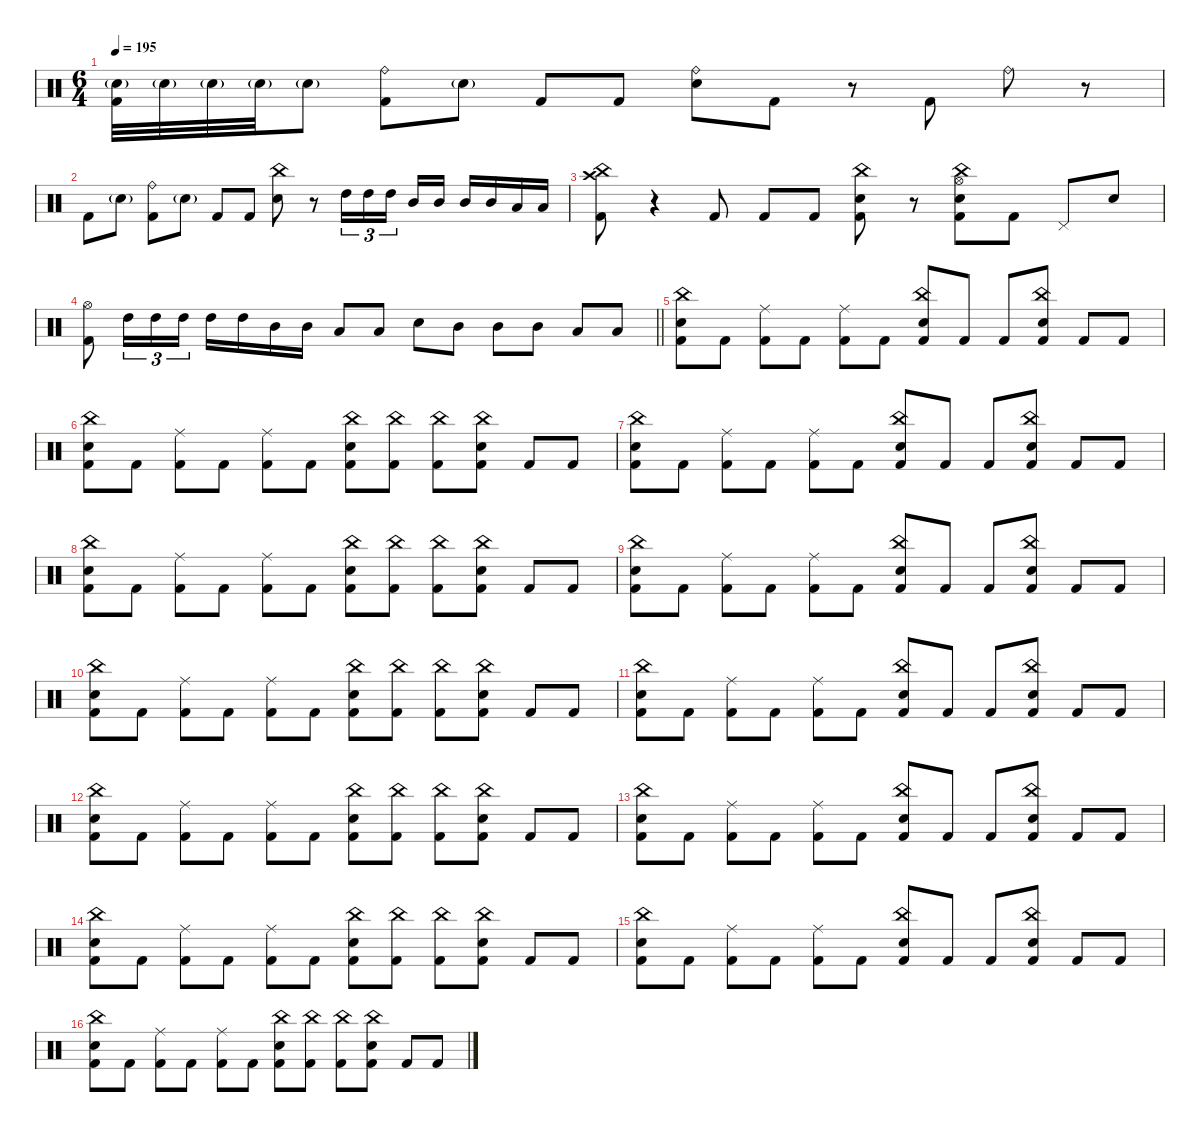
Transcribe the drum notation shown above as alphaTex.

\defaultSystemsLayout 4
\hideDynamics
\bracketExtendMode nobrackets
\singleTrackTrackNamePolicy hidden
\multiTrackTrackNamePolicy hidden
\firstSystemTrackNameMode fullname
\firstSystemTrackNameOrientation horizontal
\otherSystemsTrackNameOrientation horizontal
\track ("Drums" "drm.") {instrument percussion}
\staff {score}
\articulation defaults
\ts (6 4)
\tempo 195
\clef neutral
\ks c
("Snare (hit) 2"{g} "Kick (hit) 2").32{dy mf beam Down} "Snare (hit) 2"{g}.32{beam Down} "Snare (hit) 2"{g}.32{beam Down} "Snare (hit) 2"{g}.32{beam Down} "Snare (hit) 2"{g}.8{beam Down} ("Ride (bell)" "Kick (hit) 2").8{beam Down} "Snare (hit) 2"{g}.8{beam Up} "Kick (hit) 2".8{beam Up} "Kick (hit) 2".8{beam Up} ("Ride (bell)" "Snare (hit) 2").8{beam Down} "Kick (hit) 2".8{beam Down} r.8{beam Down} "Kick (hit) 2".8{beam Down} "Ride (bell)".8{beam Down} r.8{beam Down} |
"Kick (hit) 2".8{beam Down} "Snare (hit) 2"{g}.8{beam Down} ("Ride (bell)" "Kick (hit) 2").8{beam Down} "Snare (hit) 2"{g}.8{beam Up} "Kick (hit) 2".8{beam Up} "Kick (hit) 2".8{beam Up} ("China (hit)" "Snare (hit) 2").8{beam Down} r.8{beam Down} "High Tom (hit)".16{tu (3 2) dy ff beam Down} "High Tom (hit)".16{tu (3 2) beam Down} "High Tom (hit)".16{tu (3 2) beam Down} "Mid Tom (hit)".16{beam Up} "Mid Tom (hit)".16{beam Up} "Mid Tom (hit)".16{beam Up} "Mid Tom (hit)".16{beam Up} "Low Tom (hit)".16{beam Up} "Low Tom (hit)".16{beam Up} |
("China (hit)" "Crash high (hit)" "Kick (hit) 2").8{beam Down} r.4{beam Down} "Kick (hit) 2".8{beam Up} "Kick (hit) 2".8{beam Up} "Kick (hit) 2".8{beam Up} ("China (hit)" "Snare (hit) 2" "Kick (hit) 2").8{beam Down} r.8{beam Down} ("China (hit)" "Hi-Hat (open)" "Snare (hit) 2" "Kick (hit) 2").8{beam Down} "Kick (hit) 2".8{beam Up} "Pedal Hi-Hat (hit)".8{beam Up} "Snare (hit) 2".8{beam Up} |
\barLineRight lightlight
("Hi-Hat (open)" "Kick (hit) 2").8{beam Down} "High Tom (hit)".16{tu (3 2) beam Down} "High Tom (hit)".16{tu (3 2) beam Down} "High Tom (hit)".16{tu (3 2) beam Down} "High Tom (hit)".16{beam Down} "High Tom (hit)".16{beam Down} "Mid Tom (hit)".16{beam Up} "Mid Tom (hit)".16{beam Up} "Low Tom (hit)".8{beam Up} "Low Tom (hit)".8{beam Up} "Snare (hit) 2".8{beam Down} "Mid Tom (hit)".8{beam Down} "Mid Tom (hit)".8{beam Down} "Mid Tom (hit)".8{beam Up} "Low Tom (hit)".8{beam Up} "Low Tom (hit)".8{beam Up} |
("China (hit)" "Snare (hit) 2" "Kick (hit) 2").8{dy f beam Down} "Kick (hit) 2".8{beam Down} ("Ride (middle)" "Kick (hit) 2").8{beam Down} "Kick (hit) 2".8{beam Down} ("Ride (middle)" "Kick (hit) 2").8{beam Down} "Kick (hit) 2".8{beam Down} ("China (hit)" "Snare (hit) 2" "Kick (hit) 2").8{beam Up} "Kick (hit) 2".8{beam Up} "Kick (hit) 2".8{beam Up} ("China (hit)" "Snare (hit) 2" "Kick (hit) 2").8{beam Up} "Kick (hit) 2".8{beam Up} "Kick (hit) 2".8{beam Up} |
("China (hit)" "Snare (hit) 2" "Kick (hit) 2").8{beam Down} "Kick (hit) 2".8{beam Down} ("Ride (middle)" "Kick (hit) 2").8{beam Down} "Kick (hit) 2".8{beam Down} ("Ride (middle)" "Kick (hit) 2").8{beam Down} "Kick (hit) 2".8{beam Down} ("China (hit)" "Snare (hit) 2" "Kick (hit) 2").8{beam Down} ("China (hit)" "Kick (hit) 2").8{beam Down} ("China (hit)" "Kick (hit) 2").8{beam Down} ("China (hit)" "Snare (hit) 2" "Kick (hit) 2").8{beam Up} "Kick (hit) 2".8{beam Up} "Kick (hit) 2".8{beam Up} |
("China (hit)" "Snare (hit) 2" "Kick (hit) 2").8{beam Down} "Kick (hit) 2".8{beam Down} ("Ride (middle)" "Kick (hit) 2").8{beam Down} "Kick (hit) 2".8{beam Down} ("Ride (middle)" "Kick (hit) 2").8{beam Down} "Kick (hit) 2".8{beam Down} ("China (hit)" "Snare (hit) 2" "Kick (hit) 2").8{beam Up} "Kick (hit) 2".8{beam Up} "Kick (hit) 2".8{beam Up} ("China (hit)" "Snare (hit) 2" "Kick (hit) 2").8{beam Up} "Kick (hit) 2".8{beam Up} "Kick (hit) 2".8{beam Up} |
("China (hit)" "Snare (hit) 2" "Kick (hit) 2").8{beam Down} "Kick (hit) 2".8{beam Down} ("Ride (middle)" "Kick (hit) 2").8{beam Down} "Kick (hit) 2".8{beam Down} ("Ride (middle)" "Kick (hit) 2").8{beam Down} "Kick (hit) 2".8{beam Down} ("China (hit)" "Snare (hit) 2" "Kick (hit) 2").8{beam Down} ("China (hit)" "Kick (hit) 2").8{beam Down} ("China (hit)" "Kick (hit) 2").8{beam Down} ("China (hit)" "Snare (hit) 2" "Kick (hit) 2").8{beam Up} "Kick (hit) 2".8{beam Up} "Kick (hit) 2".8{beam Up} |
("China (hit)" "Snare (hit) 2" "Kick (hit) 2").8{beam Down} "Kick (hit) 2".8{beam Down} ("Ride (middle)" "Kick (hit) 2").8{beam Down} "Kick (hit) 2".8{beam Down} ("Ride (middle)" "Kick (hit) 2").8{beam Down} "Kick (hit) 2".8{beam Down} ("China (hit)" "Snare (hit) 2" "Kick (hit) 2").8{beam Up} "Kick (hit) 2".8{beam Up} "Kick (hit) 2".8{beam Up} ("China (hit)" "Snare (hit) 2" "Kick (hit) 2").8{beam Up} "Kick (hit) 2".8{beam Up} "Kick (hit) 2".8{beam Up} |
("China (hit)" "Snare (hit) 2" "Kick (hit) 2").8{beam Down} "Kick (hit) 2".8{beam Down} ("Ride (middle)" "Kick (hit) 2").8{beam Down} "Kick (hit) 2".8{beam Down} ("Ride (middle)" "Kick (hit) 2").8{beam Down} "Kick (hit) 2".8{beam Down} ("China (hit)" "Snare (hit) 2" "Kick (hit) 2").8{beam Down} ("China (hit)" "Kick (hit) 2").8{beam Down} ("China (hit)" "Kick (hit) 2").8{beam Down} ("China (hit)" "Snare (hit) 2" "Kick (hit) 2").8{beam Up} "Kick (hit) 2".8{beam Up} "Kick (hit) 2".8{beam Up} |
("China (hit)" "Snare (hit) 2" "Kick (hit) 2").8{beam Down} "Kick (hit) 2".8{beam Down} ("Ride (middle)" "Kick (hit) 2").8{beam Down} "Kick (hit) 2".8{beam Down} ("Ride (middle)" "Kick (hit) 2").8{beam Down} "Kick (hit) 2".8{beam Down} ("China (hit)" "Snare (hit) 2" "Kick (hit) 2").8{beam Up} "Kick (hit) 2".8{beam Up} "Kick (hit) 2".8{beam Up} ("China (hit)" "Snare (hit) 2" "Kick (hit) 2").8{beam Up} "Kick (hit) 2".8{beam Up} "Kick (hit) 2".8{beam Up} |
("China (hit)" "Snare (hit) 2" "Kick (hit) 2").8{beam Down} "Kick (hit) 2".8{beam Down} ("Ride (middle)" "Kick (hit) 2").8{beam Down} "Kick (hit) 2".8{beam Down} ("Ride (middle)" "Kick (hit) 2").8{beam Down} "Kick (hit) 2".8{beam Down} ("China (hit)" "Snare (hit) 2" "Kick (hit) 2").8{beam Down} ("China (hit)" "Kick (hit) 2").8{beam Down} ("China (hit)" "Kick (hit) 2").8{beam Down} ("China (hit)" "Snare (hit) 2" "Kick (hit) 2").8{beam Up} "Kick (hit) 2".8{beam Up} "Kick (hit) 2".8{beam Up} |
("China (hit)" "Snare (hit) 2" "Kick (hit) 2").8{beam Down} "Kick (hit) 2".8{beam Down} ("Ride (middle)" "Kick (hit) 2").8{beam Down} "Kick (hit) 2".8{beam Down} ("Ride (middle)" "Kick (hit) 2").8{beam Down} "Kick (hit) 2".8{beam Down} ("China (hit)" "Snare (hit) 2" "Kick (hit) 2").8{beam Up} "Kick (hit) 2".8{beam Up} "Kick (hit) 2".8{beam Up} ("China (hit)" "Snare (hit) 2" "Kick (hit) 2").8{beam Up} "Kick (hit) 2".8{beam Up} "Kick (hit) 2".8{beam Up} |
("China (hit)" "Snare (hit) 2" "Kick (hit) 2").8{beam Down} "Kick (hit) 2".8{beam Down} ("Ride (middle)" "Kick (hit) 2").8{beam Down} "Kick (hit) 2".8{beam Down} ("Ride (middle)" "Kick (hit) 2").8{beam Down} "Kick (hit) 2".8{beam Down} ("China (hit)" "Snare (hit) 2" "Kick (hit) 2").8{beam Down} ("China (hit)" "Kick (hit) 2").8{beam Down} ("China (hit)" "Kick (hit) 2").8{beam Down} ("China (hit)" "Snare (hit) 2" "Kick (hit) 2").8{beam Up} "Kick (hit) 2".8{beam Up} "Kick (hit) 2".8{beam Up} |
("China (hit)" "Snare (hit) 2" "Kick (hit) 2").8{beam Down} "Kick (hit) 2".8{beam Down} ("Ride (middle)" "Kick (hit) 2").8{beam Down} "Kick (hit) 2".8{beam Down} ("Ride (middle)" "Kick (hit) 2").8{beam Down} "Kick (hit) 2".8{beam Down} ("China (hit)" "Snare (hit) 2" "Kick (hit) 2").8{beam Up} "Kick (hit) 2".8{beam Up} "Kick (hit) 2".8{beam Up} ("China (hit)" "Snare (hit) 2" "Kick (hit) 2").8{beam Up} "Kick (hit) 2".8{beam Up} "Kick (hit) 2".8{beam Up} |
("China (hit)" "Snare (hit) 2" "Kick (hit) 2").8{beam Down} "Kick (hit) 2".8{beam Down} ("Ride (middle)" "Kick (hit) 2").8{beam Down} "Kick (hit) 2".8{beam Down} ("Ride (middle)" "Kick (hit) 2").8{beam Down} "Kick (hit) 2".8{beam Down} ("China (hit)" "Snare (hit) 2" "Kick (hit) 2").8{beam Down} ("China (hit)" "Kick (hit) 2").8{beam Down} ("China (hit)" "Kick (hit) 2").8{beam Down} ("China (hit)" "Snare (hit) 2" "Kick (hit) 2").8{beam Up} "Kick (hit) 2".8{beam Up} "Kick (hit) 2".8{beam Up}
